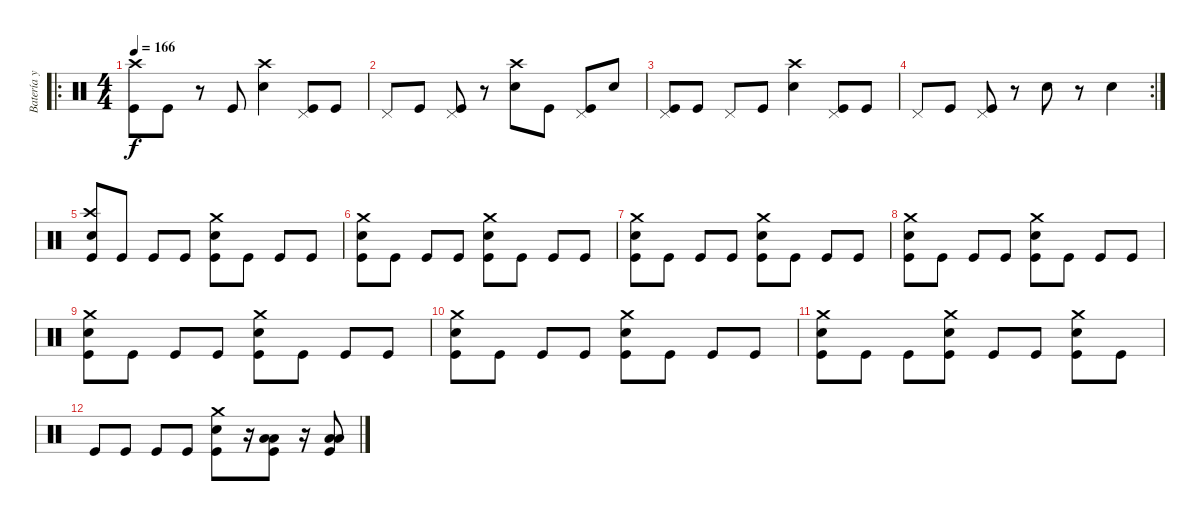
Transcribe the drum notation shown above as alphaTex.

\track ("Batería y letras" "Batería y ") {instrument percussion}
\staff {score}
\articulation defaults
\ro
\ts (4 4)
\tempo 166
\clef neutral
\ks c
("Kick (hit)" "Crash high (hit)").8{dy f} "Kick (hit)".8 r.8 "Kick (hit)".8 ("Electric Snare (hit)" "Crash high (hit)").4 ("Kick (hit)" "Pedal Hi-Hat (hit)").8 "Kick (hit)".8 |
"Pedal Hi-Hat (hit)".8 "Kick (hit)".8 ("Kick (hit)" "Pedal Hi-Hat (hit)").8 r.8 ("Electric Snare (hit)" "Crash high (hit)").8 "Kick (hit)".8 ("Kick (hit)" "Pedal Hi-Hat (hit)").8 "Electric Snare (hit)".8 |
("Kick (hit)" "Pedal Hi-Hat (hit)").8 "Kick (hit)".8 "Pedal Hi-Hat (hit)".8 "Kick (hit)".8 ("Electric Snare (hit)" "Crash high (hit)").4 ("Kick (hit)" "Pedal Hi-Hat (hit)").8 "Kick (hit)".8 |
\rc 2 "Pedal Hi-Hat (hit)".8 "Kick (hit)".8
("Kick (hit)" "Pedal Hi-Hat (hit)").8 r.8 "Electric Snare (hit)".8 r.8 "Electric Snare (hit)".4 |
("Electric Snare (hit)" "Kick (hit)" "Crash high (hit)").8 "Kick (hit)".8 "Kick (hit)".8 "Kick (hit)".8 ("Electric Snare (hit)" "Kick (hit)" "Crash medium (hit)").8 "Kick (hit)".8 "Kick (hit)".8 "Kick (hit)".8 |
("Electric Snare (hit)" "Kick (hit)" "Crash medium (hit)").8 "Kick (hit)".8 "Kick (hit)".8 "Kick (hit)".8 ("Electric Snare (hit)" "Kick (hit)" "Crash medium (hit)").8 "Kick (hit)".8 "Kick (hit)".8 "Kick (hit)".8 |
("Electric Snare (hit)" "Kick (hit)" "Crash medium (hit)").8 "Kick (hit)".8 "Kick (hit)".8 "Kick (hit)".8 ("Electric Snare (hit)" "Kick (hit)" "Crash medium (hit)").8 "Kick (hit)".8 "Kick (hit)".8 "Kick (hit)".8 |
("Electric Snare (hit)" "Kick (hit)" "Crash medium (hit)").8 "Kick (hit)".8 "Kick (hit)".8 "Kick (hit)".8 ("Electric Snare (hit)" "Kick (hit)" "Crash medium (hit)").8 "Kick (hit)".8 "Kick (hit)".8 "Kick (hit)".8 |
("Electric Snare (hit)" "Kick (hit)" "Crash medium (hit)").8 "Kick (hit)".8 "Kick (hit)".8 "Kick (hit)".8 ("Electric Snare (hit)" "Kick (hit)" "Crash medium (hit)").8 "Kick (hit)".8 "Kick (hit)".8 "Kick (hit)".8 |
("Electric Snare (hit)" "Kick (hit)" "Crash medium (hit)").8 "Kick (hit)".8 "Kick (hit)".8 "Kick (hit)".8 ("Electric Snare (hit)" "Kick (hit)" "Crash medium (hit)").8 "Kick (hit)".8 "Kick (hit)".8 "Kick (hit)".8 |
("Electric Snare (hit)" "Kick (hit)" "Crash medium (hit)").8 "Kick (hit)".8 "Kick (hit)".8 ("Electric Snare (hit)" "Kick (hit)" "Crash medium (hit)").8 "Kick (hit)".8 "Kick (hit)".8 ("Electric Snare (hit)" "Kick (hit)" "Crash medium (hit)").8 "Kick (hit)".8 |
"Kick (hit)".8 "Kick (hit)".8 "Kick (hit)".8 "Kick (hit)".8 ("Electric Snare (hit)" "Kick (hit)" "Crash medium (hit)").8 r.16 ("Low Floor Tom (hit)" "Kick (hit)" "Low Floor Tom (hit)").8 r.16 ("Low Floor Tom (hit)" "Kick (hit)" "Low Floor Tom (hit)").8
